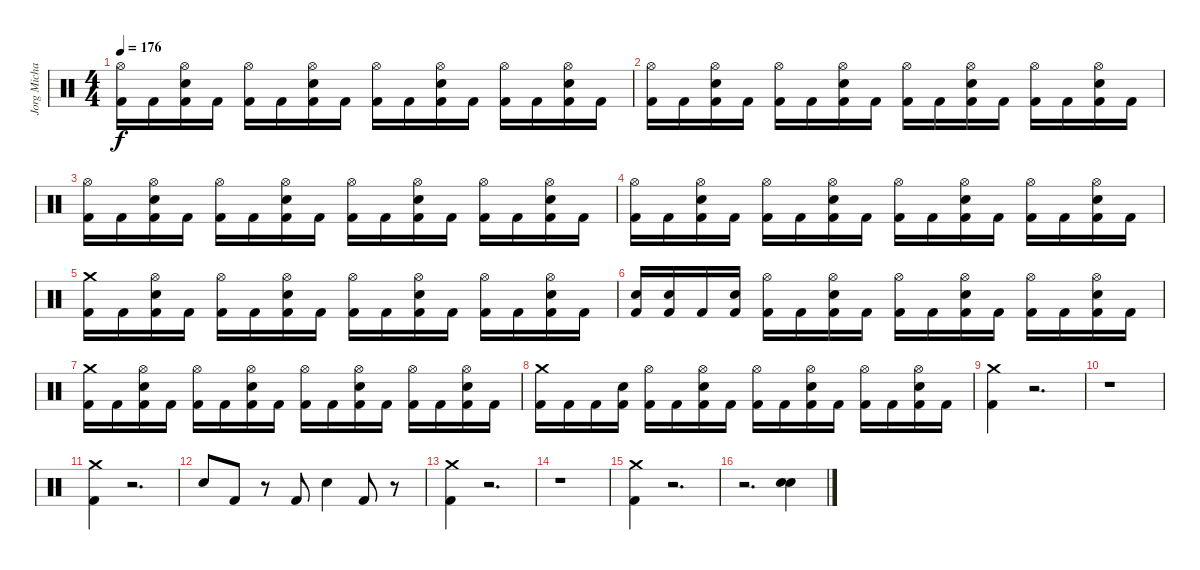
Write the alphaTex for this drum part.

\track ("Jorg Michael" "Jorg Micha") {instrument percussion}
\staff {score}
\articulation defaults
\ts (4 4)
\tempo 176
\clef neutral
\ks c
("Hi-Hat (open)" "Kick (hit) 2").16{dy f} "Kick (hit) 2".16 ("Snare (hit) 2" "Hi-Hat (open)" "Kick (hit) 2").16 "Kick (hit) 2".16 ("Hi-Hat (open)" "Kick (hit) 2").16 "Kick (hit) 2".16 ("Snare (hit) 2" "Hi-Hat (open)" "Kick (hit) 2").16 "Kick (hit) 2".16 ("Hi-Hat (open)" "Kick (hit) 2").16 "Kick (hit) 2".16 ("Snare (hit) 2" "Hi-Hat (open)" "Kick (hit) 2").16 "Kick (hit) 2".16 ("Hi-Hat (open)" "Kick (hit) 2").16 "Kick (hit) 2".16 ("Snare (hit) 2" "Hi-Hat (open)" "Kick (hit) 2").16 "Kick (hit) 2".16 |
("Hi-Hat (open)" "Kick (hit) 2").16 "Kick (hit) 2".16 ("Snare (hit) 2" "Hi-Hat (open)" "Kick (hit) 2").16 "Kick (hit) 2".16 ("Hi-Hat (open)" "Kick (hit) 2").16 "Kick (hit) 2".16 ("Snare (hit) 2" "Hi-Hat (open)" "Kick (hit) 2").16 "Kick (hit) 2".16 ("Hi-Hat (open)" "Kick (hit) 2").16 "Kick (hit) 2".16 ("Snare (hit) 2" "Hi-Hat (open)" "Kick (hit) 2").16 "Kick (hit) 2".16 ("Hi-Hat (open)" "Kick (hit) 2").16 "Kick (hit) 2".16 ("Snare (hit) 2" "Hi-Hat (open)" "Kick (hit) 2").16 "Kick (hit) 2".16 |
("Hi-Hat (open)" "Kick (hit) 2").16 "Kick (hit) 2".16 ("Snare (hit) 2" "Hi-Hat (open)" "Kick (hit) 2").16 "Kick (hit) 2".16 ("Hi-Hat (open)" "Kick (hit) 2").16 "Kick (hit) 2".16 ("Snare (hit) 2" "Hi-Hat (open)" "Kick (hit) 2").16 "Kick (hit) 2".16 ("Hi-Hat (open)" "Kick (hit) 2").16 "Kick (hit) 2".16 ("Snare (hit) 2" "Hi-Hat (open)" "Kick (hit) 2").16 "Kick (hit) 2".16 ("Hi-Hat (open)" "Kick (hit) 2").16 "Kick (hit) 2".16 ("Snare (hit) 2" "Hi-Hat (open)" "Kick (hit) 2").16 "Kick (hit) 2".16 |
("Hi-Hat (open)" "Kick (hit) 2").16 "Kick (hit) 2".16 ("Snare (hit) 2" "Hi-Hat (open)" "Kick (hit) 2").16 "Kick (hit) 2".16 ("Hi-Hat (open)" "Kick (hit) 2").16 "Kick (hit) 2".16 ("Snare (hit) 2" "Hi-Hat (open)" "Kick (hit) 2").16 "Kick (hit) 2".16 ("Hi-Hat (open)" "Kick (hit) 2").16 "Kick (hit) 2".16 ("Snare (hit) 2" "Hi-Hat (open)" "Kick (hit) 2").16 "Kick (hit) 2".16 ("Hi-Hat (open)" "Kick (hit) 2").16 "Kick (hit) 2".16 ("Snare (hit) 2" "Hi-Hat (open)" "Kick (hit) 2").16 "Kick (hit) 2".16 |
("Crash medium (hit)" "Kick (hit) 2").16 "Kick (hit) 2".16 ("Snare (hit) 2" "Hi-Hat (open)" "Kick (hit) 2").16 "Kick (hit) 2".16 ("Hi-Hat (open)" "Kick (hit) 2").16 "Kick (hit) 2".16 ("Snare (hit) 2" "Hi-Hat (open)" "Kick (hit) 2").16 "Kick (hit) 2".16 ("Hi-Hat (open)" "Kick (hit) 2").16 "Kick (hit) 2".16 ("Snare (hit) 2" "Hi-Hat (open)" "Kick (hit) 2").16 "Kick (hit) 2".16 ("Hi-Hat (open)" "Kick (hit) 2").16 "Kick (hit) 2".16 ("Snare (hit) 2" "Hi-Hat (open)" "Kick (hit) 2").16 "Kick (hit) 2".16 |
("Snare (hit) 2" "Kick (hit) 2").16 ("Snare (hit) 2" "Kick (hit) 2").16 "Kick (hit) 2".16 ("Snare (hit) 2" "Kick (hit) 2").16 ("Hi-Hat (open)" "Kick (hit) 2").16 "Kick (hit) 2".16 ("Snare (hit) 2" "Hi-Hat (open)" "Kick (hit) 2").16 "Kick (hit) 2".16 ("Hi-Hat (open)" "Kick (hit) 2").16 "Kick (hit) 2".16 ("Snare (hit) 2" "Hi-Hat (open)" "Kick (hit) 2").16 "Kick (hit) 2".16 ("Hi-Hat (open)" "Kick (hit) 2").16 "Kick (hit) 2".16 ("Snare (hit) 2" "Hi-Hat (open)" "Kick (hit) 2").16 "Kick (hit) 2".16 |
("Crash medium (hit)" "Kick (hit) 2").16 "Kick (hit) 2".16 ("Snare (hit) 2" "Hi-Hat (open)" "Kick (hit) 2").16 "Kick (hit) 2".16 ("Hi-Hat (open)" "Kick (hit) 2").16 "Kick (hit) 2".16 ("Snare (hit) 2" "Hi-Hat (open)" "Kick (hit) 2").16 "Kick (hit) 2".16 ("Hi-Hat (open)" "Kick (hit) 2").16 "Kick (hit) 2".16 ("Snare (hit) 2" "Hi-Hat (open)" "Kick (hit) 2").16 "Kick (hit) 2".16 ("Hi-Hat (open)" "Kick (hit) 2").16 "Kick (hit) 2".16 ("Snare (hit) 2" "Hi-Hat (open)" "Kick (hit) 2").16 "Kick (hit) 2".16 |
("Crash medium (hit)" "Kick (hit) 2").16 "Kick (hit) 2".16 "Kick (hit) 2".16 ("Snare (hit) 2" "Kick (hit) 2").16 ("Hi-Hat (open)" "Kick (hit) 2").16 "Kick (hit) 2".16 ("Snare (hit) 2" "Hi-Hat (open)" "Kick (hit) 2").16 "Kick (hit) 2".16 ("Hi-Hat (open)" "Kick (hit) 2").16 "Kick (hit) 2".16 ("Snare (hit) 2" "Hi-Hat (open)" "Kick (hit) 2").16 "Kick (hit) 2".16 ("Hi-Hat (open)" "Kick (hit) 2").16 "Kick (hit) 2".16 ("Snare (hit) 2" "Hi-Hat (open)" "Kick (hit) 2").16 "Kick (hit) 2".16 |
("Crash medium (hit)" "Kick (hit) 2").4 r.2{d} |
r.1 |
("Crash medium (hit)" "Kick (hit) 2").4 r.2{d} |
"Snare (hit) 2".8 "Kick (hit) 2".8 r.8 "Kick (hit) 2".8 "Snare (hit) 2".4 "Kick (hit) 2".8 r.8 |
("Crash medium (hit)" "Kick (hit) 2").4 r.2{d} |
r.1 |
("Crash medium (hit)" "Kick (hit) 2").4 r.2{d} |
r.2{d} ("Snare (hit) 2" "Snare (hit) 2").4
